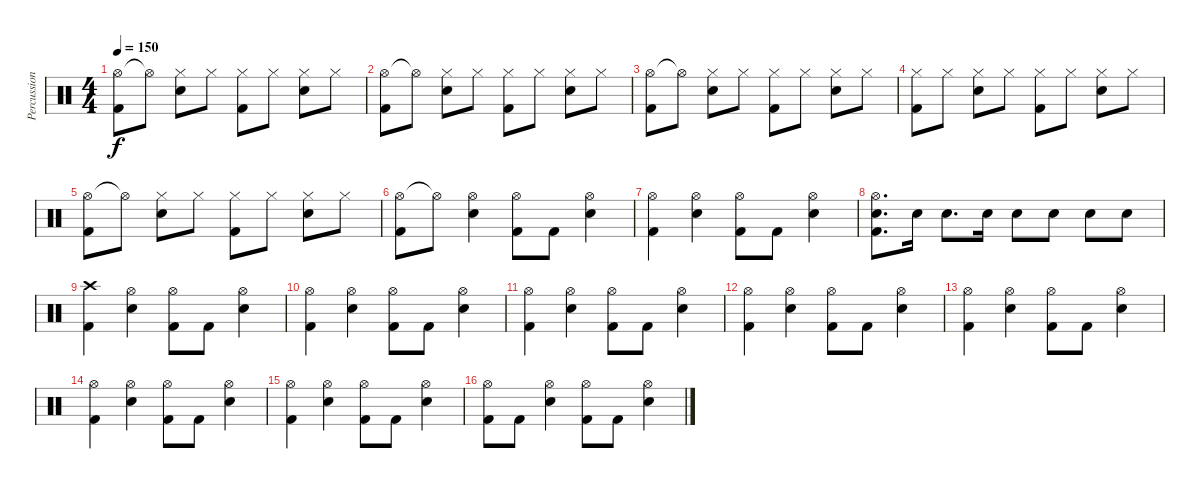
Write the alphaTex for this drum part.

\track ("Percussion" "Percussion") {instrument percussion}
\staff {score}
\articulation defaults
\ts (4 4)
\tempo 150
\clef neutral
\ks c
("Hi-Hat (open)" "Kick (hit) 2").8{dy f} "Hi-Hat (open)"{t}.8 ("Hi-Hat (closed)" "Snare (hit) 2").8 "Hi-Hat (closed)".8 ("Hi-Hat (closed)" "Kick (hit) 2").8 "Hi-Hat (closed)".8 ("Hi-Hat (closed)" "Snare (hit) 2").8 "Hi-Hat (closed)".8 |
("Hi-Hat (open)" "Kick (hit) 2").8 "Hi-Hat (open)"{t}.8 ("Hi-Hat (closed)" "Snare (hit) 2").8 "Hi-Hat (closed)".8 ("Hi-Hat (closed)" "Kick (hit) 2").8 "Hi-Hat (closed)".8 ("Hi-Hat (closed)" "Snare (hit) 2").8 "Hi-Hat (closed)".8 |
("Hi-Hat (open)" "Kick (hit) 2").8 "Hi-Hat (open)"{t}.8 ("Hi-Hat (closed)" "Snare (hit) 2").8 "Hi-Hat (closed)".8 ("Hi-Hat (closed)" "Kick (hit) 2").8 "Hi-Hat (closed)".8 ("Hi-Hat (closed)" "Snare (hit) 2").8 "Hi-Hat (closed)".8 |
("Hi-Hat (closed)" "Kick (hit) 2").8 "Hi-Hat (closed)".8 ("Hi-Hat (closed)" "Snare (hit) 2").8 "Hi-Hat (closed)".8 ("Hi-Hat (closed)" "Kick (hit) 2").8 "Hi-Hat (closed)".8 ("Hi-Hat (closed)" "Snare (hit) 2").8 "Hi-Hat (closed)".8 |
("Hi-Hat (open)" "Kick (hit) 2").8 "Hi-Hat (open)"{t}.8 ("Hi-Hat (closed)" "Snare (hit) 2").8 "Hi-Hat (closed)".8 ("Hi-Hat (closed)" "Kick (hit) 2").8 "Hi-Hat (closed)".8 ("Hi-Hat (closed)" "Snare (hit) 2").8 "Hi-Hat (closed)".8 |
("Hi-Hat (open)" "Kick (hit) 2").8 "Hi-Hat (open)"{t}.8 ("Hi-Hat (open)" "Snare (hit) 2").4 ("Hi-Hat (open)" "Kick (hit) 2").8 "Kick (hit) 2".8 ("Hi-Hat (open)" "Snare (hit) 2").4 |
("Hi-Hat (open)" "Kick (hit) 2").4 ("Hi-Hat (open)" "Snare (hit) 2").4 ("Hi-Hat (open)" "Kick (hit) 2").8 "Kick (hit) 2".8 ("Hi-Hat (open)" "Snare (hit) 2").4 |
("Hi-Hat (open)" "Snare (hit) 2" "Kick (hit) 2").8{d} "Snare (hit) 2".16 "Snare (hit) 2".8{d} "Snare (hit) 2".16 "Snare (hit) 2".8 "Snare (hit) 2".8 "Snare (hit) 2".8 "Snare (hit) 2".8 |
("Crash high (hit)" "Kick (hit) 2").4 ("Hi-Hat (open)" "Snare (hit) 2").4 ("Hi-Hat (open)" "Kick (hit) 2").8 "Kick (hit) 2".8 ("Hi-Hat (open)" "Snare (hit) 2").4 |
("Hi-Hat (open)" "Kick (hit) 2").4 ("Hi-Hat (open)" "Snare (hit) 2").4 ("Hi-Hat (open)" "Kick (hit) 2").8 "Kick (hit) 2".8 ("Hi-Hat (open)" "Snare (hit) 2").4 |
("Hi-Hat (open)" "Kick (hit) 2").4 ("Hi-Hat (open)" "Snare (hit) 2").4 ("Hi-Hat (open)" "Kick (hit) 2").8 "Kick (hit) 2".8 ("Hi-Hat (open)" "Snare (hit) 2").4 |
("Hi-Hat (open)" "Kick (hit) 2").4 ("Hi-Hat (open)" "Snare (hit) 2").4 ("Hi-Hat (open)" "Kick (hit) 2").8 "Kick (hit) 2".8 ("Hi-Hat (open)" "Snare (hit) 2").4 |
("Hi-Hat (open)" "Kick (hit) 2").4 ("Hi-Hat (open)" "Snare (hit) 2").4 ("Hi-Hat (open)" "Kick (hit) 2").8 "Kick (hit) 2".8 ("Hi-Hat (open)" "Snare (hit) 2").4 |
("Hi-Hat (open)" "Kick (hit) 2").4 ("Hi-Hat (open)" "Snare (hit) 2").4 ("Hi-Hat (open)" "Kick (hit) 2").8 "Kick (hit) 2".8 ("Hi-Hat (open)" "Snare (hit) 2").4 |
("Hi-Hat (open)" "Kick (hit) 2").4 ("Hi-Hat (open)" "Snare (hit) 2").4 ("Hi-Hat (open)" "Kick (hit) 2").8 "Kick (hit) 2".8 ("Hi-Hat (open)" "Snare (hit) 2").4 |
("Hi-Hat (open)" "Kick (hit) 2").8 "Kick (hit) 2".8 ("Hi-Hat (open)" "Snare (hit) 2").4 ("Hi-Hat (open)" "Kick (hit) 2").8 "Kick (hit) 2".8 ("Hi-Hat (open)" "Snare (hit) 2").4
